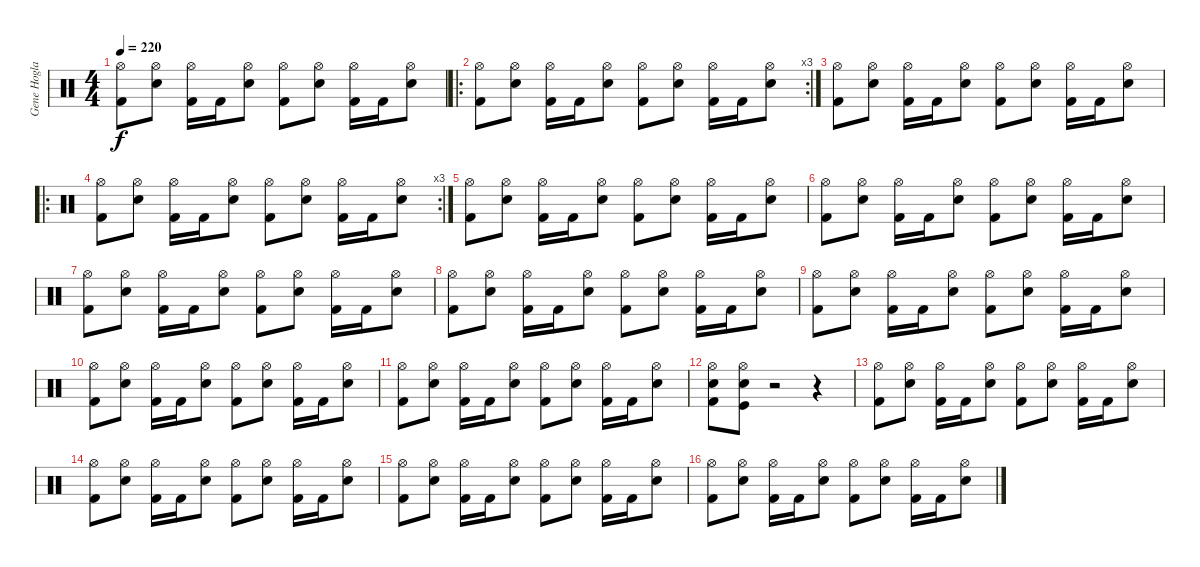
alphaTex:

\track ("Gene Hoglan" "Gene Hogla") {instrument percussion}
\staff {score}
\articulation defaults
\ts (4 4)
\tempo 220
\clef neutral
\ks c
("Hi-Hat (open)" "Kick (hit) 2").8{dy f} ("Hi-Hat (open)" "Electric Snare (hit)").8 ("Hi-Hat (open)" "Kick (hit) 2").16 "Kick (hit) 2".16 ("Hi-Hat (open)" "Electric Snare (hit)").8 ("Hi-Hat (open)" "Kick (hit) 2").8 ("Hi-Hat (open)" "Electric Snare (hit)").8 ("Hi-Hat (open)" "Kick (hit) 2").16 "Kick (hit) 2".16 ("Hi-Hat (open)" "Electric Snare (hit)").8 |
\ro
\rc 3
("Hi-Hat (open)" "Kick (hit) 2").8 ("Hi-Hat (open)" "Electric Snare (hit)").8 ("Hi-Hat (open)" "Kick (hit) 2").16 "Kick (hit) 2".16 ("Hi-Hat (open)" "Electric Snare (hit)").8 ("Hi-Hat (open)" "Kick (hit) 2").8 ("Hi-Hat (open)" "Electric Snare (hit)").8 ("Hi-Hat (open)" "Kick (hit) 2").16 "Kick (hit) 2".16 ("Hi-Hat (open)" "Electric Snare (hit)").8 |
("Hi-Hat (open)" "Kick (hit) 2").8 ("Hi-Hat (open)" "Electric Snare (hit)").8 ("Hi-Hat (open)" "Kick (hit) 2").16 "Kick (hit) 2".16 ("Hi-Hat (open)" "Electric Snare (hit)").8 ("Hi-Hat (open)" "Kick (hit) 2").8 ("Hi-Hat (open)" "Electric Snare (hit)").8 ("Hi-Hat (open)" "Kick (hit) 2").16 "Kick (hit) 2".16 ("Hi-Hat (open)" "Electric Snare (hit)").8 |
\ro
\rc 3
("Hi-Hat (open)" "Kick (hit) 2").8 ("Hi-Hat (open)" "Electric Snare (hit)").8 ("Hi-Hat (open)" "Kick (hit) 2").16 "Kick (hit) 2".16 ("Hi-Hat (open)" "Electric Snare (hit)").8 ("Hi-Hat (open)" "Kick (hit) 2").8 ("Hi-Hat (open)" "Electric Snare (hit)").8 ("Hi-Hat (open)" "Kick (hit) 2").16 "Kick (hit) 2".16 ("Hi-Hat (open)" "Electric Snare (hit)").8 |
("Hi-Hat (open)" "Kick (hit) 2").8 ("Hi-Hat (open)" "Electric Snare (hit)").8 ("Hi-Hat (open)" "Kick (hit) 2").16 "Kick (hit) 2".16 ("Hi-Hat (open)" "Electric Snare (hit)").8 ("Hi-Hat (open)" "Kick (hit) 2").8 ("Hi-Hat (open)" "Electric Snare (hit)").8 ("Hi-Hat (open)" "Kick (hit) 2").16 "Kick (hit) 2".16 ("Hi-Hat (open)" "Electric Snare (hit)").8 |
("Hi-Hat (open)" "Kick (hit) 2").8 ("Hi-Hat (open)" "Electric Snare (hit)").8 ("Hi-Hat (open)" "Kick (hit) 2").16 "Kick (hit) 2".16 ("Hi-Hat (open)" "Electric Snare (hit)").8 ("Hi-Hat (open)" "Kick (hit) 2").8 ("Hi-Hat (open)" "Electric Snare (hit)").8 ("Hi-Hat (open)" "Kick (hit) 2").16 "Kick (hit) 2".16 ("Hi-Hat (open)" "Electric Snare (hit)").8 |
("Hi-Hat (open)" "Kick (hit) 2").8 ("Hi-Hat (open)" "Electric Snare (hit)").8 ("Hi-Hat (open)" "Kick (hit) 2").16 "Kick (hit) 2".16 ("Hi-Hat (open)" "Electric Snare (hit)").8 ("Hi-Hat (open)" "Kick (hit) 2").8 ("Hi-Hat (open)" "Electric Snare (hit)").8 ("Hi-Hat (open)" "Kick (hit) 2").16 "Kick (hit) 2".16 ("Hi-Hat (open)" "Electric Snare (hit)").8 |
("Hi-Hat (open)" "Kick (hit) 2").8 ("Hi-Hat (open)" "Electric Snare (hit)").8 ("Hi-Hat (open)" "Kick (hit) 2").16 "Kick (hit) 2".16 ("Hi-Hat (open)" "Electric Snare (hit)").8 ("Hi-Hat (open)" "Kick (hit) 2").8 ("Hi-Hat (open)" "Electric Snare (hit)").8 ("Hi-Hat (open)" "Kick (hit) 2").16 "Kick (hit) 2".16 ("Hi-Hat (open)" "Electric Snare (hit)").8 |
("Hi-Hat (open)" "Kick (hit) 2").8 ("Hi-Hat (open)" "Electric Snare (hit)").8 ("Hi-Hat (open)" "Kick (hit) 2").16 "Kick (hit) 2".16 ("Hi-Hat (open)" "Electric Snare (hit)").8 ("Hi-Hat (open)" "Kick (hit) 2").8 ("Hi-Hat (open)" "Electric Snare (hit)").8 ("Hi-Hat (open)" "Kick (hit) 2").16 "Kick (hit) 2".16 ("Hi-Hat (open)" "Electric Snare (hit)").8 |
("Hi-Hat (open)" "Kick (hit) 2").8 ("Hi-Hat (open)" "Electric Snare (hit)").8 ("Hi-Hat (open)" "Kick (hit) 2").16 "Kick (hit) 2".16 ("Hi-Hat (open)" "Electric Snare (hit)").8 ("Hi-Hat (open)" "Kick (hit) 2").8 ("Hi-Hat (open)" "Electric Snare (hit)").8 ("Hi-Hat (open)" "Kick (hit) 2").16 "Kick (hit) 2".16 ("Hi-Hat (open)" "Electric Snare (hit)").8 |
("Hi-Hat (open)" "Kick (hit) 2").8 ("Hi-Hat (open)" "Electric Snare (hit)").8 ("Hi-Hat (open)" "Kick (hit) 2").16 "Kick (hit) 2".16 ("Hi-Hat (open)" "Electric Snare (hit)").8 ("Hi-Hat (open)" "Kick (hit) 2").8 ("Hi-Hat (open)" "Electric Snare (hit)").8 ("Hi-Hat (open)" "Kick (hit) 2").16 "Kick (hit) 2".16 ("Hi-Hat (open)" "Electric Snare (hit)").8 |
("Hi-Hat (open)" "Electric Snare (hit)" "Kick (hit) 2").8 ("Hi-Hat (open)" "Electric Snare (hit)" "Kick (hit)").8 r.2 r.4 |
("Hi-Hat (open)" "Kick (hit) 2").8 ("Hi-Hat (open)" "Electric Snare (hit)").8 ("Hi-Hat (open)" "Kick (hit) 2").16 "Kick (hit) 2".16 ("Hi-Hat (open)" "Electric Snare (hit)").8 ("Hi-Hat (open)" "Kick (hit) 2").8 ("Hi-Hat (open)" "Electric Snare (hit)").8 ("Hi-Hat (open)" "Kick (hit) 2").16 "Kick (hit) 2".16 ("Hi-Hat (open)" "Electric Snare (hit)").8 |
("Hi-Hat (open)" "Kick (hit) 2").8 ("Hi-Hat (open)" "Electric Snare (hit)").8 ("Hi-Hat (open)" "Kick (hit) 2").16 "Kick (hit) 2".16 ("Hi-Hat (open)" "Electric Snare (hit)").8 ("Hi-Hat (open)" "Kick (hit) 2").8 ("Hi-Hat (open)" "Electric Snare (hit)").8 ("Hi-Hat (open)" "Kick (hit) 2").16 "Kick (hit) 2".16 ("Hi-Hat (open)" "Electric Snare (hit)").8 |
("Hi-Hat (open)" "Kick (hit) 2").8 ("Hi-Hat (open)" "Electric Snare (hit)").8 ("Hi-Hat (open)" "Kick (hit) 2").16 "Kick (hit) 2".16 ("Hi-Hat (open)" "Electric Snare (hit)").8 ("Hi-Hat (open)" "Kick (hit) 2").8 ("Hi-Hat (open)" "Electric Snare (hit)").8 ("Hi-Hat (open)" "Kick (hit) 2").16 "Kick (hit) 2".16 ("Hi-Hat (open)" "Electric Snare (hit)").8 |
("Hi-Hat (open)" "Kick (hit) 2").8 ("Hi-Hat (open)" "Electric Snare (hit)").8 ("Hi-Hat (open)" "Kick (hit) 2").16 "Kick (hit) 2".16 ("Hi-Hat (open)" "Electric Snare (hit)").8 ("Hi-Hat (open)" "Kick (hit) 2").8 ("Hi-Hat (open)" "Electric Snare (hit)").8 ("Hi-Hat (open)" "Kick (hit) 2").16 "Kick (hit) 2".16 ("Hi-Hat (open)" "Electric Snare (hit)").8
